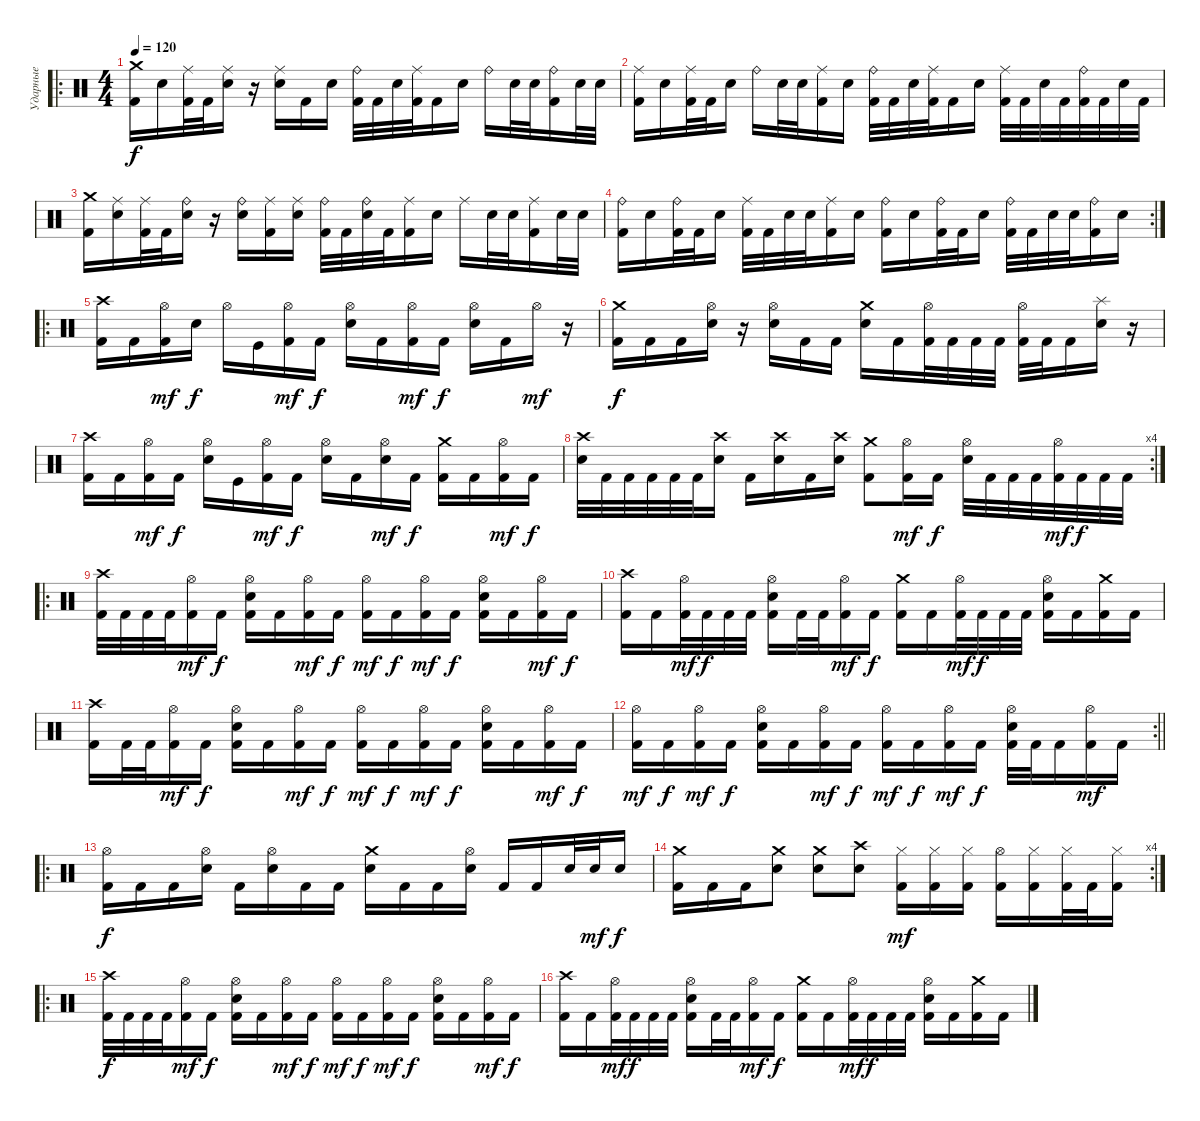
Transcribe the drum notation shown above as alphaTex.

\track ("Ударные" "Ударные") {instrument percussion}
\staff {score}
\articulation defaults
\ro
\ts (4 4)
\tempo 120
\clef neutral
\ks c
("Crash medium (hit)" "Kick (hit) 2").16{dy f} "Electric Snare (hit)".16 ("Ride (middle)" "Kick (hit) 2").32 "Kick (hit) 2".32 ("Ride (middle)" "Electric Snare (hit)").16 r.16 ("Ride (middle)" "Electric Snare (hit)").16 "Kick (hit) 2".16 "Electric Snare (hit)".16 ("Ride (bell)" "Kick (hit) 2").32 "Kick (hit) 2".32 "Electric Snare (hit)".32 ("Ride (middle)" "Kick (hit) 2").32 "Kick (hit) 2".16 "Electric Snare (hit)".16 "Ride (bell)".16 "Electric Snare (hit)".32 "Electric Snare (hit)".32 ("Ride (bell)" "Kick (hit) 2").16 "Electric Snare (hit)".32 "Electric Snare (hit)".32 |
("Ride (middle)" "Kick (hit) 2").16 "Electric Snare (hit)".16 ("Ride (middle)" "Kick (hit) 2").32 "Kick (hit) 2".32 "Electric Snare (hit)".16 "Ride (bell)".16 "Electric Snare (hit)".32 "Electric Snare (hit)".32 ("Ride (middle)" "Kick (hit) 2").16 "Electric Snare (hit)".16 ("Ride (bell)" "Kick (hit) 2").32 "Kick (hit) 2".32 "Electric Snare (hit)".32 ("Ride (middle)" "Kick (hit) 2").32 "Kick (hit) 2".16 "Electric Snare (hit)".16 ("Ride (middle)" "Kick (hit) 2").32 "Kick (hit) 2".32 "Electric Snare (hit)".32 "Kick (hit) 2".32 ("Ride (bell)" "Kick (hit) 2").32 "Kick (hit) 2".32 "Electric Snare (hit)".32 "Kick (hit) 2".32 |
("Crash medium (hit)" "Kick (hit) 2").16 ("Ride (middle)" "Electric Snare (hit)").16 ("Ride (middle)" "Kick (hit) 2").32 "Kick (hit) 2".32 ("Ride (bell)" "Electric Snare (hit)").16 r.16 ("Ride (bell)" "Electric Snare (hit)").16 ("Ride (middle)" "Kick (hit) 2").16 ("Ride (middle)" "Electric Snare (hit)").16 ("Ride (bell)" "Kick (hit) 2").32 "Kick (hit) 2".32 ("Ride (bell)" "Electric Snare (hit)").32 "Kick (hit) 2".32 ("Ride (middle)" "Kick (hit) 2").16 "Electric Snare (hit)".16 "Ride (middle)".16 "Electric Snare (hit)".32 "Electric Snare (hit)".32 ("Ride (middle)" "Kick (hit) 2").16 "Electric Snare (hit)".32 "Electric Snare (hit)".32 |
\rc 2
("Ride (bell)" "Kick (hit) 2").16 "Electric Snare (hit)".16 ("Ride (bell)" "Kick (hit) 2").32 "Kick (hit) 2".32 "Electric Snare (hit)".16 ("Ride (middle)" "Kick (hit) 2").32 "Kick (hit) 2".32 "Electric Snare (hit)".32 "Electric Snare (hit)".32 ("Ride (middle)" "Kick (hit) 2").16 "Electric Snare (hit)".16 ("Ride (bell)" "Kick (hit) 2").16 "Electric Snare (hit)".16 ("Ride (bell)" "Kick (hit) 2").32 "Kick (hit) 2".32 "Electric Snare (hit)".16 ("Ride (bell)" "Kick (hit) 2").32 "Kick (hit) 2".32 "Electric Snare (hit)".32 "Electric Snare (hit)".32 ("Ride (bell)" "Kick (hit) 2").16 "Electric Snare (hit)".16 |
\ro
("Crash high (hit)" "Kick (hit) 2").16 "Kick (hit) 2".16 ("Hi-Hat (open)" "Kick (hit) 2").16{dy mf} "Electric Snare (hit)".16{dy f} "Hi-Hat (open)".16 "Kick (hit)".16 ("Hi-Hat (open)" "Kick (hit) 2").16{dy mf} "Kick (hit) 2".16{dy f} ("Hi-Hat (open)" "Electric Snare (hit)").16 "Kick (hit) 2".16 ("Hi-Hat (open)" "Kick (hit) 2").16{dy mf} "Kick (hit) 2".16{dy f} ("Hi-Hat (open)" "Electric Snare (hit)").16 "Kick (hit) 2".16 "Hi-Hat (open)".16{dy mf} r.16 |
("Crash medium (hit)" "Kick (hit) 2").16{dy f} "Kick (hit) 2".16 "Kick (hit) 2".16 ("Hi-Hat (open)" "Electric Snare (hit)").16 r.16 ("Hi-Hat (open)" "Electric Snare (hit)").16 "Kick (hit) 2".16 "Kick (hit) 2".16 ("Crash medium (hit)" "Electric Snare (hit)").16 "Kick (hit) 2".16 ("Hi-Hat (open)" "Kick (hit) 2").32 "Kick (hit) 2".32 "Kick (hit) 2".32 "Kick (hit) 2".32 ("Hi-Hat (open)" "Kick (hit) 2").32 "Kick (hit) 2".32 "Kick (hit) 2".16 ("Splash (hit)" "Electric Snare (hit)").16 r.16 |
("Crash high (hit)" "Kick (hit) 2").16 "Kick (hit) 2".16 ("Hi-Hat (open)" "Kick (hit) 2").16{dy mf} "Kick (hit) 2".16{dy f} ("Hi-Hat (open)" "Electric Snare (hit)").16 "Kick (hit)".16 ("Hi-Hat (open)" "Kick (hit) 2").16{dy mf} "Kick (hit) 2".16{dy f} ("Hi-Hat (open)" "Electric Snare (hit)").16 "Kick (hit) 2".16 ("Hi-Hat (open)" "Electric Snare (hit)").16{dy mf} "Kick (hit) 2".16{dy f} ("Crash medium (hit)" "Kick (hit) 2").16 "Kick (hit) 2".16 ("Hi-Hat (open)" "Kick (hit) 2").16{dy mf} "Kick (hit) 2".16{dy f} |
\rc 4
("Crash high (hit)" "Electric Snare (hit)").32 "Kick (hit) 2".32 "Kick (hit) 2".32 "Kick (hit) 2".32 "Kick (hit) 2".32 "Kick (hit) 2".32 ("Crash high (hit)" "Electric Snare (hit)").16 "Kick (hit) 2".16 ("Crash high (hit)" "Electric Snare (hit)").16 "Kick (hit) 2".16 ("Crash high (hit)" "Electric Snare (hit)").16 ("Crash medium (hit)" "Kick (hit) 2").8 ("Hi-Hat (open)" "Kick (hit) 2").16{dy mf} "Kick (hit) 2".16{dy f} ("Hi-Hat (open)" "Electric Snare (hit)").32 "Kick (hit) 2".32 "Kick (hit) 2".32 "Kick (hit) 2".32 ("Hi-Hat (open)" "Kick (hit) 2").32{dy mf} "Kick (hit) 2".32{dy f} "Kick (hit) 2".32 "Kick (hit) 2".32 |
\ro
("Crash high (hit)" "Kick (hit) 2").32 "Kick (hit) 2".32 "Kick (hit) 2".32 "Kick (hit) 2".32 ("Hi-Hat (open)" "Kick (hit) 2").16{dy mf} "Kick (hit) 2".16{dy f} ("Hi-Hat (open)" "Electric Snare (hit)" "Kick (hit) 2").16 "Kick (hit) 2".16 ("Hi-Hat (open)" "Kick (hit) 2").16{dy mf} "Kick (hit) 2".16{dy f} ("Hi-Hat (open)" "Kick (hit) 2").16{dy mf} "Kick (hit) 2".16{dy f} ("Hi-Hat (open)" "Kick (hit) 2").16{dy mf} "Kick (hit) 2".16{dy f} ("Hi-Hat (open)" "Electric Snare (hit)" "Kick (hit) 2").16 "Kick (hit) 2".16 ("Hi-Hat (open)" "Kick (hit) 2").16{dy mf} "Kick (hit) 2".16{dy f} |
("Crash high (hit)" "Kick (hit) 2").16 "Kick (hit) 2".16 ("Hi-Hat (open)" "Kick (hit) 2").32{dy mf} "Kick (hit) 2".32{dy f} "Kick (hit) 2".32 "Kick (hit) 2".32 ("Hi-Hat (open)" "Electric Snare (hit)" "Kick (hit) 2").16 "Kick (hit) 2".32 "Kick (hit) 2".32 ("Hi-Hat (open)" "Kick (hit) 2").16{dy mf} "Kick (hit) 2".16{dy f} ("Crash medium (hit)" "Kick (hit) 2").16 "Kick (hit) 2".16 ("Hi-Hat (open)" "Kick (hit) 2").32{dy mf} "Kick (hit) 2".32{dy f} "Kick (hit) 2".32 "Kick (hit) 2".32 ("Hi-Hat (open)" "Electric Snare (hit)" "Kick (hit) 2").16 "Kick (hit) 2".16 ("Crash medium (hit)" "Kick (hit) 2").16 "Kick (hit) 2".16 |
("Crash high (hit)" "Kick (hit) 2").16 "Kick (hit) 2".32 "Kick (hit) 2".32 ("Hi-Hat (open)" "Kick (hit) 2").16{dy mf} "Kick (hit) 2".16{dy f} ("Hi-Hat (open)" "Electric Snare (hit)" "Kick (hit) 2").16 "Kick (hit) 2".16 ("Hi-Hat (open)" "Kick (hit) 2").16{dy mf} "Kick (hit) 2".16{dy f} ("Hi-Hat (open)" "Kick (hit) 2").16{dy mf} "Kick (hit) 2".16{dy f} ("Hi-Hat (open)" "Kick (hit) 2").16{dy mf} "Kick (hit) 2".16{dy f} ("Hi-Hat (open)" "Electric Snare (hit)" "Kick (hit) 2").16 "Kick (hit) 2".16 ("Hi-Hat (open)" "Kick (hit) 2").16{dy mf} "Kick (hit) 2".16{dy f} |
\rc 2
\barLineRight lightlight
("Hi-Hat (open)" "Kick (hit) 2").16{dy mf} "Kick (hit) 2".16{dy f} ("Hi-Hat (open)" "Kick (hit) 2").16{dy mf} "Kick (hit) 2".16{dy f} ("Hi-Hat (open)" "Electric Snare (hit)" "Kick (hit) 2").16 "Kick (hit) 2".16 ("Hi-Hat (open)" "Kick (hit) 2").16{dy mf} "Kick (hit) 2".16{dy f} ("Hi-Hat (open)" "Kick (hit) 2").16{dy mf} "Kick (hit) 2".16{dy f} ("Hi-Hat (open)" "Kick (hit) 2").16{dy mf} "Kick (hit) 2".16{dy f} ("Hi-Hat (open)" "Electric Snare (hit)" "Kick (hit) 2").32 "Kick (hit) 2".32 "Kick (hit) 2".16 ("Hi-Hat (open)" "Kick (hit) 2").16{dy mf} "Kick (hit) 2".16 |
\ro
("Hi-Hat (open)" "Kick (hit) 2").16{dy f} "Kick (hit) 2".16 "Kick (hit) 2".16 ("Hi-Hat (open)" "Electric Snare (hit)").16 "Kick (hit) 2".16 ("Hi-Hat (open)" "Electric Snare (hit)").16 "Kick (hit) 2".16 "Kick (hit) 2".16 ("Crash medium (hit)" "Electric Snare (hit)").16 "Kick (hit) 2".16 "Kick (hit) 2".16 ("Hi-Hat (open)" "Electric Snare (hit)").16 "Kick (hit) 2".16 "Kick (hit) 2".16 "Electric Snare (hit)".32 "Electric Snare (hit)".32{dy mf} "Electric Snare (hit)".16{dy f} |
\rc 4
("Crash medium (hit)" "Kick (hit) 2").16 "Kick (hit) 2".16 "Kick (hit) 2".16 ("Crash medium (hit)" "Electric Snare (hit)").8 ("Crash medium (hit)" "Electric Snare (hit)").8 ("Crash high (hit)" "Electric Snare (hit)").8 ("Hi-Hat (closed)" "Kick (hit) 2").16{dy mf} ("Hi-Hat (closed)" "Kick (hit) 2").16 ("Hi-Hat (closed)" "Kick (hit) 2").16 ("Hi-Hat (open)" "Kick (hit) 2").16 ("Hi-Hat (closed)" "Kick (hit) 2").16 ("Hi-Hat (closed)" "Kick (hit) 2").32 "Kick (hit) 2".32 ("Hi-Hat (closed)" "Kick (hit) 2").16 |
\ro
("Crash high (hit)" "Kick (hit) 2").32{dy f} "Kick (hit) 2".32 "Kick (hit) 2".32 "Kick (hit) 2".32 ("Hi-Hat (open)" "Kick (hit) 2").16{dy mf} "Kick (hit) 2".16{dy f} ("Hi-Hat (open)" "Electric Snare (hit)" "Kick (hit) 2").16 "Kick (hit) 2".16 ("Hi-Hat (open)" "Kick (hit) 2").16{dy mf} "Kick (hit) 2".16{dy f} ("Hi-Hat (open)" "Kick (hit) 2").16{dy mf} "Kick (hit) 2".16{dy f} ("Hi-Hat (open)" "Kick (hit) 2").16{dy mf} "Kick (hit) 2".16{dy f} ("Hi-Hat (open)" "Electric Snare (hit)" "Kick (hit) 2").16 "Kick (hit) 2".16 ("Hi-Hat (open)" "Kick (hit) 2").16{dy mf} "Kick (hit) 2".16{dy f} |
("Crash high (hit)" "Kick (hit) 2").16 "Kick (hit) 2".16 ("Hi-Hat (open)" "Kick (hit) 2").32{dy mf} "Kick (hit) 2".32{dy f} "Kick (hit) 2".32 "Kick (hit) 2".32 ("Hi-Hat (open)" "Electric Snare (hit)" "Kick (hit) 2").16 "Kick (hit) 2".32 "Kick (hit) 2".32 ("Hi-Hat (open)" "Kick (hit) 2").16{dy mf} "Kick (hit) 2".16{dy f} ("Crash medium (hit)" "Kick (hit) 2").16 "Kick (hit) 2".16 ("Hi-Hat (open)" "Kick (hit) 2").32{dy mf} "Kick (hit) 2".32{dy f} "Kick (hit) 2".32 "Kick (hit) 2".32 ("Hi-Hat (open)" "Electric Snare (hit)" "Kick (hit) 2").16 "Kick (hit) 2".16 ("Crash medium (hit)" "Kick (hit) 2").16 "Kick (hit) 2".16
